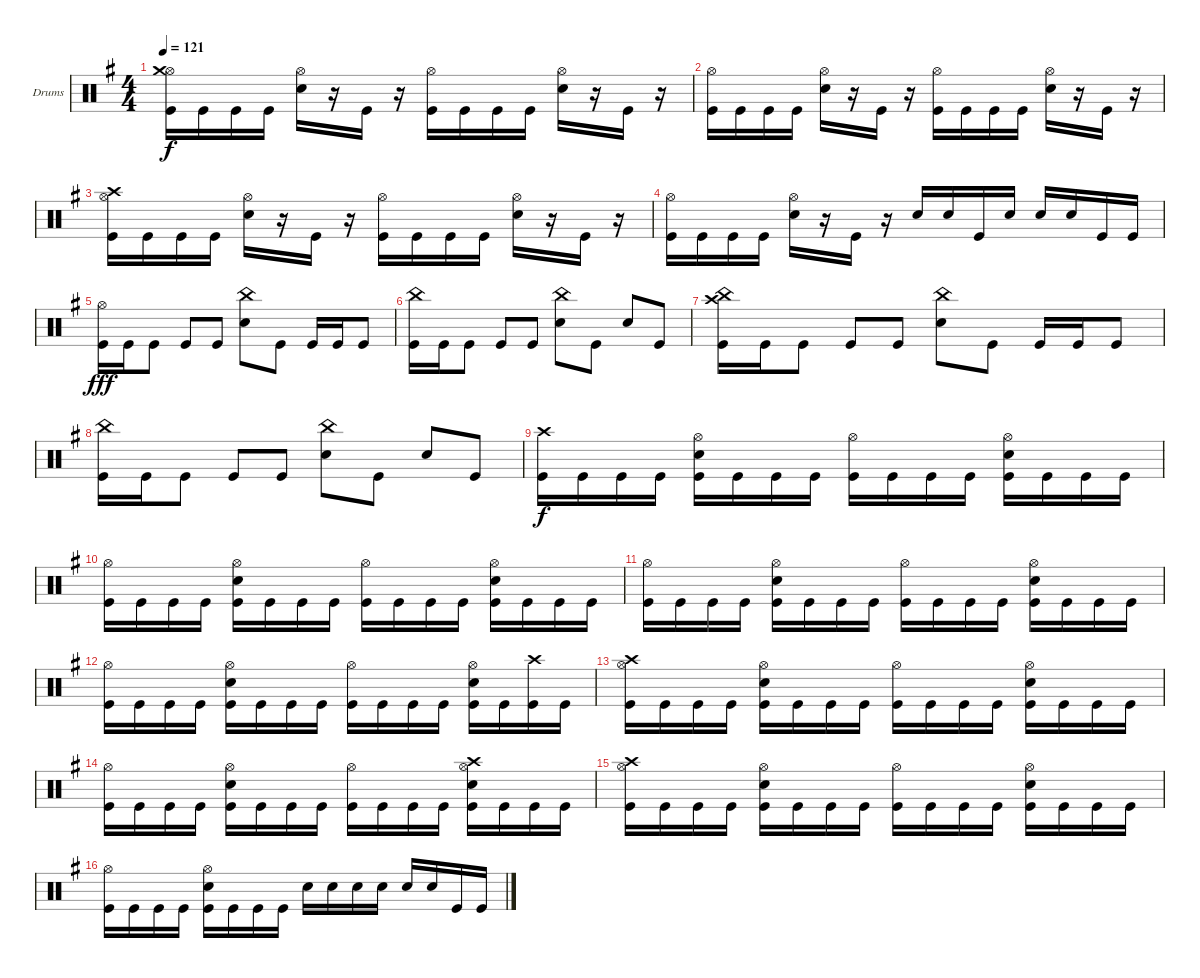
\bracketExtendMode groupsimilarinstruments
\firstSystemTrackNameOrientation horizontal
\otherSystemsTrackNameOrientation horizontal
\track ("Drumkit" "Drums") {instrument percussion}
\staff {score}
\articulation defaults
\ts (4 4)
\tempo 121
\clef neutral
\scale
0.333333
\ks g
("Hi-Hat (open)" "Kick (hit)" "Crash medium (hit)").16{dy f} "Kick (hit)".16 "Kick (hit)".16 "Kick (hit)".16 ("Hi-Hat (open)" "Snare (hit) 2").16 r.16 "Kick (hit)".16 r.16 ("Hi-Hat (open)" "Kick (hit)").16 "Kick (hit)".16 "Kick (hit)".16 "Kick (hit)".16 ("Hi-Hat (open)" "Snare (hit) 2").16 r.16 "Kick (hit)".16 r.16 |
\scale
0.333333 ("Hi-Hat (open)" "Kick (hit)").16 "Kick (hit)".16 "Kick (hit)".16 "Kick (hit)".16 ("Hi-Hat (open)" "Snare (hit) 2").16 r.16 "Kick (hit)".16 r.16 ("Hi-Hat (open)" "Kick (hit)").16 "Kick (hit)".16 "Kick (hit)".16 "Kick (hit)".16 ("Hi-Hat (open)" "Snare (hit) 2").16 r.16 "Kick (hit)".16 r.16 |
\scale
0.333333 ("Hi-Hat (open)" "Kick (hit)" "Crash high (hit)").16 "Kick (hit)".16 "Kick (hit)".16 "Kick (hit)".16 ("Hi-Hat (open)" "Snare (hit) 2").16 r.16 "Kick (hit)".16 r.16 ("Hi-Hat (open)" "Kick (hit)").16 "Kick (hit)".16 "Kick (hit)".16 "Kick (hit)".16 ("Hi-Hat (open)" "Snare (hit) 2").16 r.16 "Kick (hit)".16 r.16 |
\scale
0.333333 ("Hi-Hat (open)" "Kick (hit)").16 "Kick (hit)".16 "Kick (hit)".16 "Kick (hit)".16 ("Hi-Hat (open)" "Snare (hit) 2").16 r.16 "Kick (hit)".16 r.16 "Snare (hit) 2".16 "Snare (hit) 2".16 "Kick (hit)".16 "Snare (hit) 2".16 "Snare (hit) 2".16 "Snare (hit) 2".16 "Kick (hit)".16 "Kick (hit)".16 |
\scale
0.333333 ("Kick (hit)" "Hi-Hat (open)").16{dy fff} "Kick (hit)".16 "Kick (hit)".8 "Kick (hit)".8 "Kick (hit)".8 ("China (hit)" "Snare (hit) 2").8 "Kick (hit)".8 "Kick (hit)".16 "Kick (hit)".16 "Kick (hit)".8 |
\scale
0.333333 ("China (hit)" "Kick (hit)").16 "Kick (hit)".16 "Kick (hit)".8 "Kick (hit)".8 "Kick (hit)".8 ("China (hit)" "Snare (hit) 2").8 "Kick (hit)".8 "Snare (hit) 2".8 "Kick (hit)".8 |
\scale
0.333333 ("China (hit)" "Kick (hit)" "Crash high (hit)").16 "Kick (hit)".16 "Kick (hit)".8 "Kick (hit)".8 "Kick (hit)".8 ("China (hit)" "Snare (hit) 2").8 "Kick (hit)".8 "Kick (hit)".16 "Kick (hit)".16 "Kick (hit)".8 |
\scale
0.333333 ("China (hit)" "Kick (hit)").16 "Kick (hit)".16 "Kick (hit)".8 "Kick (hit)".8 "Kick (hit)".8 ("China (hit)" "Snare (hit) 2").8 "Kick (hit)".8 "Snare (hit) 2".8 "Kick (hit)".8 |
\scale
0.333333 ("Crash high (hit)" "Kick (hit)").16{dy f} "Kick (hit)".16 "Kick (hit)".16 "Kick (hit)".16 ("Hi-Hat (open)" "Snare (hit) 2" "Kick (hit)").16 "Kick (hit)".16 "Kick (hit)".16 "Kick (hit)".16 ("Hi-Hat (open)" "Kick (hit)").16 "Kick (hit)".16 "Kick (hit)".16 "Kick (hit)".16 ("Hi-Hat (open)" "Snare (hit) 2" "Kick (hit)").16 "Kick (hit)".16 "Kick (hit)".16 "Kick (hit)".16 |
\scale
0.333333 ("Hi-Hat (open)" "Kick (hit)").16 "Kick (hit)".16 "Kick (hit)".16 "Kick (hit)".16 ("Hi-Hat (open)" "Snare (hit) 2" "Kick (hit)").16 "Kick (hit)".16 "Kick (hit)".16 "Kick (hit)".16 ("Hi-Hat (open)" "Kick (hit)").16 "Kick (hit)".16 "Kick (hit)".16 "Kick (hit)".16 ("Hi-Hat (open)" "Snare (hit) 2" "Kick (hit)").16 "Kick (hit)".16 "Kick (hit)".16 "Kick (hit)".16 |
\scale
0.333333 ("Hi-Hat (open)" "Kick (hit)").16 "Kick (hit)".16 "Kick (hit)".16 "Kick (hit)".16 ("Hi-Hat (open)" "Snare (hit) 2" "Kick (hit)").16 "Kick (hit)".16 "Kick (hit)".16 "Kick (hit)".16 ("Hi-Hat (open)" "Kick (hit)").16 "Kick (hit)".16 "Kick (hit)".16 "Kick (hit)".16 ("Hi-Hat (open)" "Snare (hit) 2" "Kick (hit)").16 "Kick (hit)".16 "Kick (hit)".16 "Kick (hit)".16 |
\scale
0.333333 ("Hi-Hat (open)" "Kick (hit)").16 "Kick (hit)".16 "Kick (hit)".16 "Kick (hit)".16 ("Hi-Hat (open)" "Snare (hit) 2" "Kick (hit)").16 "Kick (hit)".16 "Kick (hit)".16 "Kick (hit)".16 ("Hi-Hat (open)" "Kick (hit)").16 "Kick (hit)".16 "Kick (hit)".16 "Kick (hit)".16 ("Hi-Hat (open)" "Snare (hit) 2" "Kick (hit)").16 "Kick (hit)".16 ("Kick (hit)" "Crash high (hit)").16 "Kick (hit)".16 |
\scale
0.333333 ("Hi-Hat (open)" "Kick (hit)" "Crash high (hit)").16 "Kick (hit)".16 "Kick (hit)".16 "Kick (hit)".16 ("Hi-Hat (open)" "Snare (hit) 2" "Kick (hit)").16 "Kick (hit)".16 "Kick (hit)".16 "Kick (hit)".16 ("Hi-Hat (open)" "Kick (hit)").16 "Kick (hit)".16 "Kick (hit)".16 "Kick (hit)".16 ("Hi-Hat (open)" "Snare (hit) 2" "Kick (hit)").16 "Kick (hit)".16 "Kick (hit)".16 "Kick (hit)".16 |
\scale
0.333333 ("Hi-Hat (open)" "Kick (hit)").16 "Kick (hit)".16 "Kick (hit)".16 "Kick (hit)".16 ("Hi-Hat (open)" "Snare (hit) 2" "Kick (hit)").16 "Kick (hit)".16 "Kick (hit)".16 "Kick (hit)".16 ("Hi-Hat (open)" "Kick (hit)").16 "Kick (hit)".16 "Kick (hit)".16 "Kick (hit)".16 ("Hi-Hat (open)" "Snare (hit) 2" "Kick (hit)" "Crash high (hit)").16 "Kick (hit)".16 "Kick (hit)".16 "Kick (hit)".16 |
\scale
0.333333 ("Hi-Hat (open)" "Kick (hit)" "Crash high (hit)").16 "Kick (hit)".16 "Kick (hit)".16 "Kick (hit)".16 ("Hi-Hat (open)" "Snare (hit) 2" "Kick (hit)").16 "Kick (hit)".16 "Kick (hit)".16 "Kick (hit)".16 ("Hi-Hat (open)" "Kick (hit)").16 "Kick (hit)".16 "Kick (hit)".16 "Kick (hit)".16 ("Hi-Hat (open)" "Snare (hit) 2" "Kick (hit)").16 "Kick (hit)".16 "Kick (hit)".16 "Kick (hit)".16 |
\scale
0.333333 ("Hi-Hat (open)" "Kick (hit)").16 "Kick (hit)".16 "Kick (hit)".16 "Kick (hit)".16 ("Hi-Hat (open)" "Snare (hit) 2" "Kick (hit)").16 "Kick (hit)".16 "Kick (hit)".16 "Kick (hit)".16 "Snare (hit) 2".16 "Snare (hit) 2".16 "Snare (hit) 2".16 "Snare (hit) 2".16 "Snare (hit) 2".16 "Snare (hit) 2".16 "Kick (hit)".16 "Kick (hit)".16
